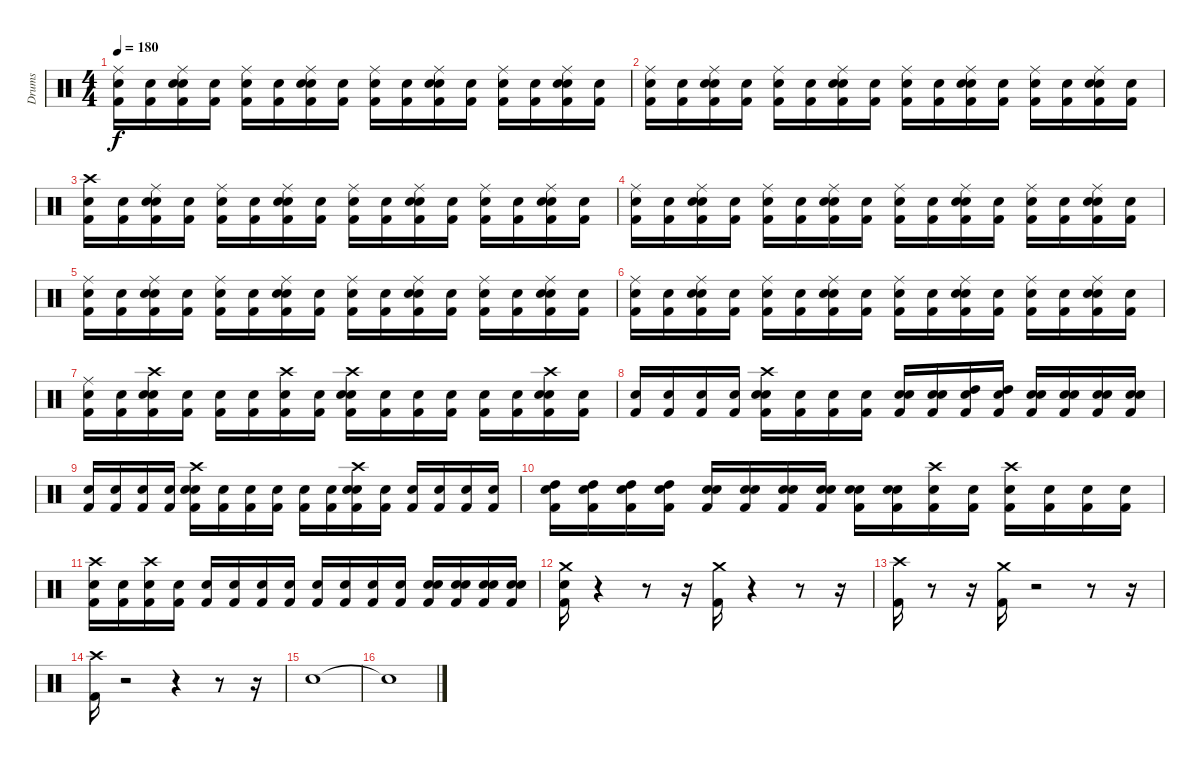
\track ("Drums" "Drums") {instrument percussion}
\staff {score}
\articulation defaults
\ts (4 4)
\tempo 180
\clef neutral
\ks c
("Snare (hit)" "Kick (hit) 2" "Ride (middle)").16{dy f} ("Snare (hit)" "Kick (hit) 2").16 ("Snare (hit)" "Snare (hit) 2" "Kick (hit) 2" "Ride (middle)").16 ("Snare (hit)" "Kick (hit) 2").16 ("Snare (hit)" "Kick (hit) 2" "Ride (middle)").16 ("Snare (hit)" "Kick (hit) 2").16 ("Snare (hit)" "Snare (hit) 2" "Kick (hit) 2" "Ride (middle)").16 ("Snare (hit)" "Kick (hit) 2").16 ("Snare (hit)" "Kick (hit) 2" "Ride (middle)").16 ("Snare (hit)" "Kick (hit) 2").16 ("Snare (hit)" "Snare (hit) 2" "Kick (hit) 2" "Ride (middle)").16 ("Snare (hit)" "Kick (hit) 2").16 ("Snare (hit)" "Kick (hit) 2" "Ride (middle)").16 ("Snare (hit)" "Kick (hit) 2").16 ("Snare (hit)" "Snare (hit) 2" "Kick (hit) 2" "Ride (middle)").16 ("Snare (hit)" "Kick (hit) 2").16 |
("Snare (hit)" "Kick (hit) 2" "Ride (middle)").16 ("Snare (hit)" "Kick (hit) 2").16 ("Snare (hit)" "Snare (hit) 2" "Kick (hit) 2" "Ride (middle)").16 ("Snare (hit)" "Kick (hit) 2").16 ("Snare (hit)" "Kick (hit) 2" "Ride (middle)").16 ("Snare (hit)" "Kick (hit) 2").16 ("Snare (hit)" "Snare (hit) 2" "Kick (hit) 2" "Ride (middle)").16 ("Snare (hit)" "Kick (hit) 2").16 ("Snare (hit)" "Kick (hit) 2" "Ride (middle)").16 ("Snare (hit)" "Kick (hit) 2").16 ("Snare (hit)" "Snare (hit) 2" "Kick (hit) 2" "Ride (middle)").16 ("Snare (hit)" "Kick (hit) 2").16 ("Snare (hit)" "Kick (hit) 2" "Ride (middle)").16 ("Snare (hit)" "Kick (hit) 2").16 ("Snare (hit)" "Snare (hit) 2" "Kick (hit) 2" "Ride (middle)").16 ("Snare (hit)" "Kick (hit) 2").16 |
("Snare (hit)" "Kick (hit) 2" "Crash high (hit)").16 ("Snare (hit)" "Kick (hit) 2").16 ("Snare (hit)" "Snare (hit) 2" "Kick (hit) 2" "Ride (middle)").16 ("Snare (hit)" "Kick (hit) 2").16 ("Snare (hit)" "Kick (hit) 2" "Ride (middle)").16 ("Snare (hit)" "Kick (hit) 2").16 ("Snare (hit)" "Snare (hit) 2" "Kick (hit) 2" "Ride (middle)").16 ("Snare (hit)" "Kick (hit) 2").16 ("Snare (hit)" "Kick (hit) 2" "Ride (middle)").16 ("Snare (hit)" "Kick (hit) 2").16 ("Snare (hit)" "Snare (hit) 2" "Kick (hit) 2" "Ride (middle)").16 ("Snare (hit)" "Kick (hit) 2").16 ("Snare (hit)" "Kick (hit) 2" "Ride (middle)").16 ("Snare (hit)" "Kick (hit) 2").16 ("Snare (hit)" "Kick (hit) 2" "Ride (middle)" "Snare (hit) 2").16 ("Snare (hit)" "Kick (hit) 2").16 |
("Snare (hit)" "Kick (hit) 2" "Ride (middle)").16 ("Snare (hit)" "Kick (hit) 2").16 ("Snare (hit)" "Snare (hit) 2" "Kick (hit) 2" "Ride (middle)").16 ("Snare (hit)" "Kick (hit) 2").16 ("Snare (hit)" "Kick (hit) 2" "Ride (middle)").16 ("Snare (hit)" "Kick (hit) 2").16 ("Snare (hit)" "Snare (hit) 2" "Kick (hit) 2" "Ride (middle)").16 ("Snare (hit)" "Kick (hit) 2").16 ("Snare (hit)" "Kick (hit) 2" "Ride (middle)").16 ("Snare (hit)" "Kick (hit) 2").16 ("Snare (hit)" "Snare (hit) 2" "Kick (hit) 2" "Ride (middle)").16 ("Snare (hit)" "Kick (hit) 2").16 ("Snare (hit)" "Kick (hit) 2" "Ride (middle)").16 ("Snare (hit)" "Kick (hit) 2").16 ("Snare (hit)" "Snare (hit) 2" "Kick (hit) 2" "Ride (middle)").16 ("Snare (hit)" "Kick (hit) 2").16 |
("Snare (hit)" "Kick (hit) 2" "Ride (middle)").16 ("Snare (hit)" "Kick (hit) 2").16 ("Snare (hit)" "Snare (hit) 2" "Kick (hit) 2" "Ride (middle)").16 ("Snare (hit)" "Kick (hit) 2").16 ("Snare (hit)" "Kick (hit) 2" "Ride (middle)").16 ("Snare (hit)" "Kick (hit) 2").16 ("Snare (hit)" "Snare (hit) 2" "Kick (hit) 2" "Ride (middle)").16 ("Snare (hit)" "Kick (hit) 2").16 ("Snare (hit)" "Kick (hit) 2" "Ride (middle)").16 ("Snare (hit)" "Kick (hit) 2").16 ("Snare (hit)" "Snare (hit) 2" "Kick (hit) 2" "Ride (middle)").16 ("Snare (hit)" "Kick (hit) 2").16 ("Snare (hit)" "Kick (hit) 2" "Ride (middle)").16 ("Snare (hit)" "Kick (hit) 2").16 ("Snare (hit)" "Snare (hit) 2" "Kick (hit) 2" "Ride (middle)").16 ("Snare (hit)" "Kick (hit) 2").16 |
("Snare (hit)" "Kick (hit) 2" "Ride (middle)").16 ("Snare (hit)" "Kick (hit) 2").16 ("Snare (hit)" "Snare (hit) 2" "Kick (hit) 2" "Ride (middle)").16 ("Snare (hit)" "Kick (hit) 2").16 ("Snare (hit)" "Kick (hit) 2" "Ride (middle)").16 ("Snare (hit)" "Kick (hit) 2").16 ("Snare (hit)" "Snare (hit) 2" "Kick (hit) 2" "Ride (middle)").16 ("Snare (hit)" "Kick (hit) 2").16 ("Snare (hit)" "Kick (hit) 2" "Ride (middle)").16 ("Snare (hit)" "Kick (hit) 2").16 ("Snare (hit)" "Snare (hit) 2" "Kick (hit) 2" "Ride (middle)").16 ("Snare (hit)" "Kick (hit) 2").16 ("Snare (hit)" "Kick (hit) 2" "Ride (middle)").16 ("Snare (hit)" "Kick (hit) 2").16 ("Snare (hit)" "Snare (hit) 2" "Kick (hit) 2" "Ride (middle)").16 ("Snare (hit)" "Kick (hit) 2").16 |
("Snare (hit)" "Kick (hit) 2" "Ride (middle)").16 ("Snare (hit)" "Kick (hit) 2").16 ("Snare (hit)" "Snare (hit) 2" "Kick (hit) 2" "Crash high (hit)").16 ("Snare (hit)" "Kick (hit) 2").16 ("Snare (hit)" "Kick (hit) 2").16 ("Snare (hit)" "Kick (hit) 2").16 ("Snare (hit)" "Kick (hit) 2" "Crash high (hit)").16 ("Snare (hit)" "Kick (hit) 2").16 ("Snare (hit)" "Snare (hit) 2" "Kick (hit) 2" "Crash high (hit)").16 ("Snare (hit)" "Kick (hit) 2").16 ("Snare (hit)" "Kick (hit) 2").16 ("Snare (hit)" "Kick (hit) 2").16 ("Snare (hit)" "Kick (hit) 2").16 ("Snare (hit)" "Kick (hit) 2").16 ("Snare (hit)" "Snare (hit) 2" "Kick (hit) 2" "Crash high (hit)").16 ("Snare (hit)" "Kick (hit) 2").16 |
("Snare (hit)" "Kick (hit) 2").16 ("Snare (hit)" "Kick (hit) 2").16 ("Snare (hit)" "Kick (hit) 2").16 ("Snare (hit)" "Kick (hit) 2").16 ("Snare (hit)" "Crash high (hit)" "Snare (hit) 2" "Kick (hit) 2").16 ("Snare (hit)" "Kick (hit) 2").16 ("Snare (hit)" "Kick (hit) 2").16 ("Snare (hit)" "Kick (hit) 2").16 ("Snare (hit)" "Snare (hit) 2" "Kick (hit) 2").16 ("Snare (hit)" "Snare (hit) 2" "Kick (hit) 2").16 ("Snare (hit)" "High Tom (hit)" "Kick (hit) 2").16 ("Snare (hit)" "High Tom (hit)" "Kick (hit) 2").16 ("Snare (hit)" "Snare (hit) 2" "Kick (hit) 2").16 ("Snare (hit)" "Snare (hit) 2" "Kick (hit) 2").16 ("Snare (hit)" "Snare (hit) 2" "Kick (hit) 2").16 ("Snare (hit)" "Snare (hit) 2" "Kick (hit) 2").16 |
("Snare (hit)" "Kick (hit) 2").16 ("Snare (hit)" "Kick (hit) 2").16 ("Snare (hit)" "Kick (hit) 2").16 ("Snare (hit)" "Kick (hit) 2").16 ("Snare (hit)" "Crash high (hit)" "Snare (hit) 2" "Kick (hit) 2").16 ("Snare (hit)" "Kick (hit) 2").16 ("Snare (hit)" "Kick (hit) 2").16 ("Snare (hit)" "Kick (hit) 2").16 ("Snare (hit)" "Kick (hit) 2").16 ("Snare (hit)" "Kick (hit) 2").16 ("Snare (hit)" "Crash high (hit)" "Snare (hit) 2" "Kick (hit) 2").16 ("Snare (hit)" "Kick (hit) 2").16 ("Snare (hit)" "Kick (hit) 2").16 ("Snare (hit)" "Kick (hit) 2").16 ("Snare (hit)" "Kick (hit) 2").16 ("Snare (hit)" "Kick (hit) 2").16 |
("Snare (hit)" "High Tom (hit)" "Kick (hit) 2").16 ("Snare (hit)" "High Tom (hit)" "Kick (hit) 2").16 ("Snare (hit)" "High Tom (hit)" "Kick (hit) 2").16 ("Snare (hit)" "High Tom (hit)" "Kick (hit) 2").16 ("Snare (hit)" "Snare (hit) 2" "Kick (hit) 2").16 ("Snare (hit)" "Snare (hit) 2" "Kick (hit) 2").16 ("Snare (hit)" "Snare (hit) 2" "Kick (hit) 2").16 ("Snare (hit)" "Snare (hit) 2" "Kick (hit) 2").16 ("Snare (hit)" "Snare (hit) 2" "Kick (hit) 2").16 ("Snare (hit)" "Snare (hit) 2" "Kick (hit) 2").16 ("Snare (hit)" "Crash high (hit)" "Kick (hit) 2").16 ("Snare (hit)" "Kick (hit) 2").16 ("Snare (hit)" "Crash high (hit)" "Kick (hit) 2").16 ("Snare (hit)" "Kick (hit) 2").16 ("Snare (hit)" "Kick (hit) 2").16 ("Snare (hit)" "Kick (hit) 2").16 |
("Snare (hit)" "Crash high (hit)" "Kick (hit) 2").16 ("Snare (hit)" "Kick (hit) 2").16 ("Snare (hit)" "Crash high (hit)" "Kick (hit) 2").16 ("Snare (hit)" "Kick (hit) 2").16 ("Snare (hit)" "Kick (hit) 2").16 ("Snare (hit)" "Kick (hit) 2").16 ("Snare (hit)" "Kick (hit) 2").16 ("Snare (hit)" "Kick (hit) 2").16 ("Snare (hit)" "Kick (hit) 2").16 ("Snare (hit)" "Kick (hit) 2").16 ("Snare (hit)" "Kick (hit) 2").16 ("Snare (hit)" "Kick (hit) 2").16 ("Snare (hit)" "Snare (hit) 2" "Kick (hit) 2").16 ("Snare (hit)" "Snare (hit) 2" "Kick (hit) 2").16 ("Snare (hit)" "Snare (hit) 2" "Kick (hit) 2").16 ("Snare (hit)" "Snare (hit) 2" "Kick (hit) 2").16 |
("Snare (hit)" "Crash medium (hit)" "Kick (hit) 2").16 r.4 r.8 r.16 ("Kick (hit) 2" "Crash medium (hit)").16 r.4 r.8 r.16 |
("Kick (hit) 2" "Crash high (hit)").16 r.8 r.16 ("Crash medium (hit)" "Kick (hit) 2").16 r.2 r.8 r.16 |
("Crash high (hit)" "Kick (hit) 2").16 r.2 r.4 r.8 r.16 |
"Snare (hit)".1 |
"Snare (hit)"{t}.1
